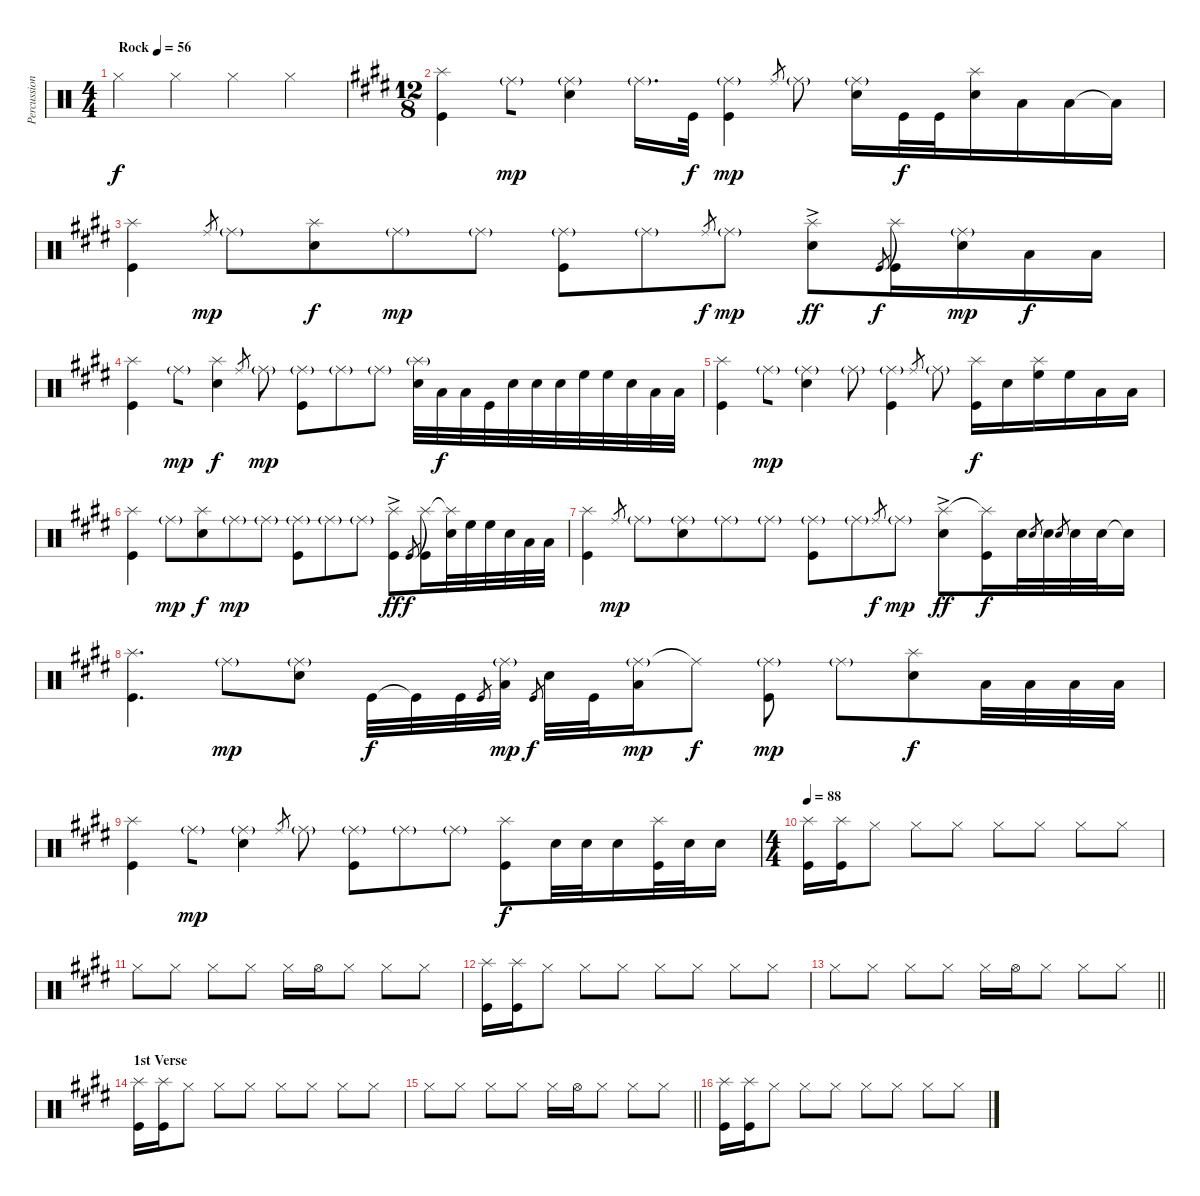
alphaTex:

\track ("Percussion" "Percussion") {instrument percussion}
\staff {score}
\articulation defaults
\ts (4 4)
\tempo (56 "Rock")
\clef neutral
\ks c "Hi-Hat (closed)".4{dy f} "Hi-Hat (closed)".4 "Hi-Hat (closed)".4 "Hi-Hat (closed)".4
|
\ts (12 8)
\ks e
("Splash (hit)" "Kick (hit)").4 "Ride (middle)"{g}.8{dy mp beam merge} ("Ride (middle)"{g} "Snare (hit) 2").4 "Ride (middle)"{g}.16{d} "Kick (hit)".32{dy f} ("Ride (middle)"{g} "Kick (hit)").4{dy mp} "Ride (middle)".8{gr} "Ride (middle)"{g}.8 ("Ride (middle)"{g} "Snare (hit) 2").16 "Kick (hit)".32{dy f} "Kick (hit)".32 ("Splash (hit)" "Snare (hit) 2").16 "Low Tom (hit)".16 "Low Tom (hit)".16 "Low Tom (hit)"{t}.16 |
("Splash (hit)" "Kick (hit)").4 "Ride (middle)".8{gr dy mp} "Ride (middle)"{g}.8{beam merge} ("Splash (hit)" "Snare (hit) 2").8{dy f} "Ride (middle)"{g}.8{dy mp} "Ride (middle)"{g}.8 ("Ride (middle)"{g} "Kick (hit)").8 "Ride (middle)"{g}.8 "Ride (middle)".8{gr dy f} "Ride (middle)"{g}.8{dy mp} ("Splash (hit)"{ac} "Snare (hit) 2").8{dy ff} "Kick (hit)".8{gr dy f} ("Splash (hit)"{t} "Kick (hit)").16 ("Ride (middle)"{g} "Snare (hit) 2").16{dy mp} "Low Tom (hit)".16{dy f} "Low Tom (hit)".16 |
("Splash (hit)" "Kick (hit)").4 "Ride (middle)"{g}.8{dy mp beam merge} ("Splash (hit)" "Snare (hit) 2").4{dy f} "Ride (middle)".8{gr} "Ride (middle)"{g}.8{dy mp} ("Ride (middle)"{g} "Kick (hit)").8 "Ride (middle)"{g}.8 "Ride (middle)"{g}.8 ("Splash (hit)"{g} "Snare (hit) 2").32 "Low Tom (hit)".32{dy f} "Low Tom (hit)".32 "Kick (hit)".32 "Snare (hit) 2".32 "Snare (hit) 2".32 "Snare (hit) 2".32 "High Floor Tom (hit)".32 "High Floor Tom (hit)".32 "Snare (hit) 2".32 "Low Tom (hit)".32 "Low Tom (hit)".32 |
("Splash (hit)" "Kick (hit)").4 "Ride (middle)"{g}.8{dy mp beam merge} ("Ride (middle)"{g} "Snare (hit) 2").4 "Ride (middle)"{g}.8 ("Ride (middle)"{g} "Kick (hit)").4 "Ride (middle)".8{gr} "Ride (middle)"{g}.8 ("Splash (hit)" "Kick (hit)").16{dy f} "Snare (hit) 2".16 ("Splash (hit)" "High Floor Tom (hit)").16 "High Floor Tom (hit)".16 "Low Tom (hit)".16 "Low Tom (hit)".16 |
("Splash (hit)" "Kick (hit)").4 "Ride (middle)"{g}.8{dy mp beam merge} ("Splash (hit)" "Snare (hit) 2").8{dy f} "Ride (middle)"{g}.8{dy mp} "Ride (middle)"{g}.8 ("Ride (middle)"{g} "Kick (hit)").8 "Ride (middle)"{g}.8 "Ride (middle)"{g}.8 ("Splash (hit)"{ac} "Kick (hit)").8{dy ff} "Kick (hit)".8{gr dy f} ("Splash (hit)"{t} "Kick (hit)").16 ("Splash (hit)"{t} "Snare (hit) 2").32 "High Floor Tom (hit)".32 "High Floor Tom (hit)".32 "Snare (hit) 2".32 "Low Tom (hit)".32 "Low Tom (hit)".32 |
("Splash (hit)" "Kick (hit)").4 "Ride (middle)".8{gr dy mp} "Ride (middle)"{g}.8{beam merge} ("Ride (middle)"{g} "Snare (hit) 2").8 "Ride (middle)"{g}.8 "Ride (middle)"{g}.8 ("Ride (middle)"{g} "Kick (hit)").8 "Ride (middle)"{g}.8 "Ride (middle)".8{gr dy f} "Ride (middle)"{g}.8{dy mp} ("Splash (hit)"{ac} "Snare (hit) 2").8{dy ff} ("Splash (hit)"{t} "Kick (hit)").16{dy f} "Snare (hit) 2".32 "Snare (hit) 2".8{gr} "Snare (hit) 2".32 "Snare (hit) 2".8{gr} "Snare (hit) 2".32 "Snare (hit) 2".32 "Snare (hit)"{t}.16 |
("Splash (hit)" "Kick (hit)").4{d} "Ride (middle)"{g}.8{dy mp beam merge} ("Ride (middle)"{g} "Snare (hit) 2").8{beam split} "Kick (hit)".32{dy f beam merge} "Kick (hit)"{t}.32 "Kick (hit)".32 "Kick (hit)".8{gr} ("Ride (middle)"{g} "Low Tom (hit)").32{dy mp} "Kick (hit)".8{gr dy f} "Snare (hit) 2".32 "Kick (hit)".32 ("Ride (middle)"{g} "Low Tom (hit)").16{dy mp} "Ride (middle)"{t}.8{dy f beam split} ("Ride (middle)"{g} "Kick (hit)").8{dy mp} "Ride (middle)"{g}.8 ("Splash (hit)" "Snare (hit) 2").8{dy f} "Low Tom (hit)".32 "Low Tom (hit)".32 "Low Tom (hit)".32 "Low Tom (hit)".32 |
("Splash (hit)" "Kick (hit)").4 "Ride (middle)"{g}.8{dy mp beam merge} ("Ride (middle)"{g} "Snare (hit) 2").4 "Ride (middle)".8{gr} "Ride (middle)"{g}.8 ("Ride (middle)"{g} "Kick (hit)").8 "Ride (middle)"{g}.8 "Ride (middle)"{g}.8 ("Splash (hit)" "Kick (hit)").8{dy f} "Snare (hit) 2".32 "Snare (hit) 2".32 "Snare (hit) 2".16 ("Splash (hit)" "Kick (hit)").32 "Snare (hit) 2".32 "Snare (hit) 2".16 |
\ts (4 4)
\tempo 88
("Splash (hit)" "Kick (hit)").16 ("Splash (hit)" "Kick (hit)").16 "Hi-Hat (closed)".8 "Hi-Hat (closed)".8 "Hi-Hat (closed)".8 "Hi-Hat (closed)".8 "Hi-Hat (closed)".8 "Hi-Hat (closed)".8 "Hi-Hat (closed)".8 |
"Hi-Hat (closed)".8 "Hi-Hat (closed)".8 "Hi-Hat (closed)".8 "Hi-Hat (closed)".8 "Hi-Hat (closed)".16 "Hi-Hat (open)".16 "Hi-Hat (closed)".8 "Hi-Hat (closed)".8 "Hi-Hat (closed)".8 |
("Splash (hit)" "Kick (hit)").16 ("Splash (hit)" "Kick (hit)").16 "Hi-Hat (closed)".8 "Hi-Hat (closed)".8 "Hi-Hat (closed)".8 "Hi-Hat (closed)".8 "Hi-Hat (closed)".8 "Hi-Hat (closed)".8 "Hi-Hat (closed)".8 |
\barLineRight lightlight "Hi-Hat (closed)".8 "Hi-Hat (closed)".8 "Hi-Hat (closed)".8 "Hi-Hat (closed)".8 "Hi-Hat (closed)".16 "Hi-Hat (open)".16 "Hi-Hat (closed)".8 "Hi-Hat (closed)".8 "Hi-Hat (closed)".8
|
\section ("" "1st Verse")
("Splash (hit)" "Kick (hit)").16 ("Splash (hit)" "Kick (hit)").16 "Hi-Hat (closed)".8 "Hi-Hat (closed)".8 "Hi-Hat (closed)".8 "Hi-Hat (closed)".8 "Hi-Hat (closed)".8 "Hi-Hat (closed)".8 "Hi-Hat (closed)".8 |
\barLineRight lightlight "Hi-Hat (closed)".8 "Hi-Hat (closed)".8 "Hi-Hat (closed)".8 "Hi-Hat (closed)".8 "Hi-Hat (closed)".16 "Hi-Hat (open)".16 "Hi-Hat (closed)".8 "Hi-Hat (closed)".8 "Hi-Hat (closed)".8
|
("Splash (hit)" "Kick (hit)").16 ("Splash (hit)" "Kick (hit)").16 "Hi-Hat (closed)".8 "Hi-Hat (closed)".8 "Hi-Hat (closed)".8 "Hi-Hat (closed)".8 "Hi-Hat (closed)".8 "Hi-Hat (closed)".8 "Hi-Hat (closed)".8
